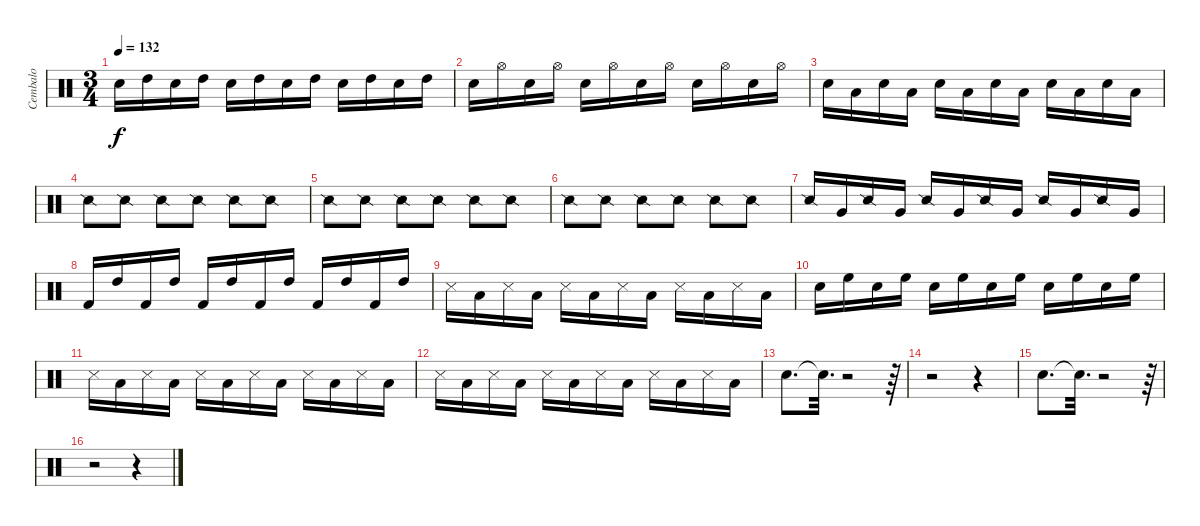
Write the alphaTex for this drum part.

\track ("Cembalo" "Cembalo") {instrument percussion}
\staff {score}
\articulation defaults
\ts (3 4)
\tempo 132
\clef neutral
\ks c "Snare (hit) 2".16{dy f} "High Tom (hit)".16 "Snare (hit) 2".16 "High Tom (hit)".16 "Snare (hit) 2".16 "High Tom (hit)".16 "Snare (hit) 2".16 "High Tom (hit)".16 "Snare (hit) 2".16 "High Tom (hit)".16 "Snare (hit) 2".16 "High Tom (hit)".16
|
"Snare (hit) 2".16 "Hi-Hat (open)".16 "Snare (hit) 2".16 "Hi-Hat (open)".16 "Snare (hit) 2".16 "Hi-Hat (open)".16 "Snare (hit) 2".16 "Hi-Hat (open)".16 "Snare (hit) 2".16 "Hi-Hat (open)".16 "Snare (hit) 2".16 "Hi-Hat (open)".16 |
"Snare (hit) 2".16 "Low Tom (hit)".16 "Snare (hit) 2".16 "Low Tom (hit)".16 "Snare (hit) 2".16 "Low Tom (hit)".16 "Snare (hit) 2".16 "Low Tom (hit)".16 "Snare (hit) 2".16 "Low Tom (hit)".16 "Snare (hit) 2".16 "Low Tom (hit)".16 |
"Snare (side stick) 2".8 "Snare (side stick) 2".8 "Snare (side stick) 2".8 "Snare (side stick) 2".8 "Snare (side stick) 2".8 "Snare (side stick) 2".8 |
"Snare (side stick) 2".8 "Snare (side stick) 2".8 "Snare (side stick) 2".8 "Snare (side stick) 2".8 "Snare (side stick) 2".8 "Snare (side stick) 2".8 |
"Snare (side stick) 2".8 "Snare (side stick) 2".8 "Snare (side stick) 2".8 "Snare (side stick) 2".8 "Snare (side stick) 2".8 "Snare (side stick) 2".8 |
"Snare (side stick) 2".16 "Very Low Tom (hit)".16 "Snare (side stick) 2".16 "Very Low Tom (hit)".16 "Snare (side stick) 2".16 "Very Low Tom (hit)".16 "Snare (side stick) 2".16 "Very Low Tom (hit)".16 "Snare (side stick) 2".16 "Very Low Tom (hit)".16 "Snare (side stick) 2".16 "Very Low Tom (hit)".16 |
"Kick (hit) 2".16 "High Tom (hit)".16 "Kick (hit) 2".16 "High Tom (hit)".16 "Kick (hit) 2".16 "High Tom (hit)".16 "Kick (hit) 2".16 "High Tom (hit)".16 "Kick (hit) 2".16 "High Tom (hit)".16 "Kick (hit) 2".16 "High Tom (hit)".16 |
"Metronome (hit)".16 "Low Tom (hit)".16 "Metronome (hit)".16 "Low Tom (hit)".16 "Metronome (hit)".16 "Low Tom (hit)".16 "Metronome (hit)".16 "Low Tom (hit)".16 "Metronome (hit)".16 "Low Tom (hit)".16 "Metronome (hit)".16 "Low Tom (hit)".16 |
"Snare (hit) 2".16 "High Floor Tom (hit)".16 "Snare (hit) 2".16 "High Floor Tom (hit)".16 "Snare (hit) 2".16 "High Floor Tom (hit)".16 "Snare (hit) 2".16 "High Floor Tom (hit)".16 "Snare (hit) 2".16 "High Floor Tom (hit)".16 "Snare (hit) 2".16 "High Floor Tom (hit)".16 |
"Metronome (hit)".16 "Low Tom (hit)".16 "Metronome (hit)".16 "Low Tom (hit)".16 "Metronome (hit)".16 "Low Tom (hit)".16 "Metronome (hit)".16 "Low Tom (hit)".16 "Metronome (hit)".16 "Low Tom (hit)".16 "Metronome (hit)".16 "Low Tom (hit)".16 |
"Metronome (hit)".16 "Low Tom (hit)".16 "Metronome (hit)".16 "Low Tom (hit)".16 "Metronome (hit)".16 "Low Tom (hit)".16 "Metronome (hit)".16 "Low Tom (hit)".16 "Metronome (hit)".16 "Low Tom (hit)".16 "Metronome (hit)".16 "Low Tom (hit)".16 |
"Snare (hit) 2".8{d} "Snare (hit)"{t}.32{d} r.2 r.64 |
r.2 r.4 |
"Snare (hit) 2".8{d} "Snare (hit)"{t}.32{d} r.2 r.64 |
r.2 r.4
